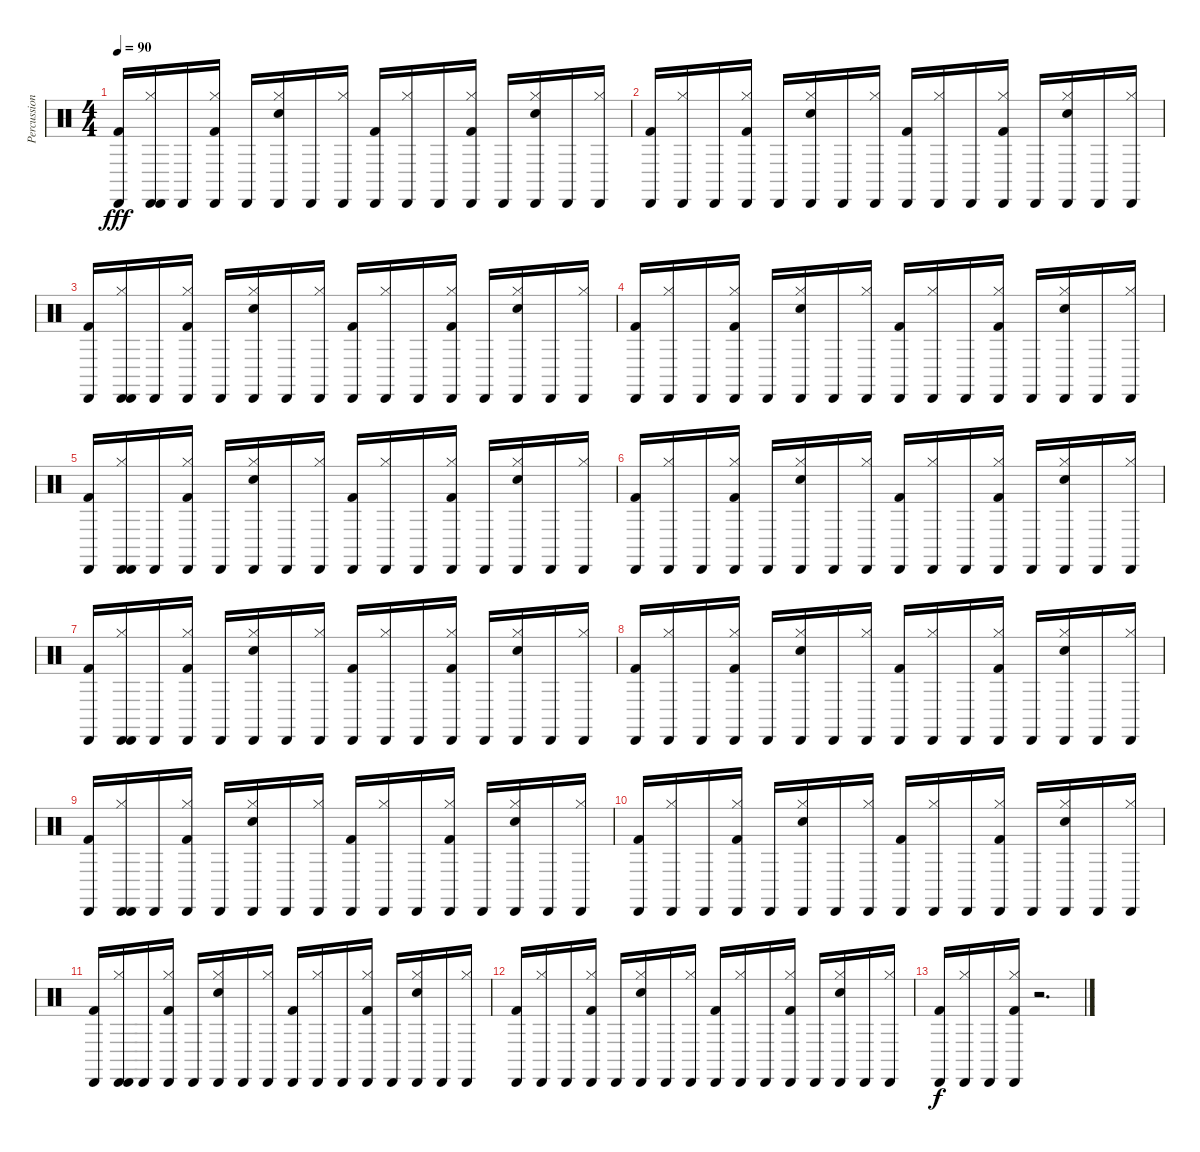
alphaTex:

\track ("Percussion" "Percussion") {instrument percussion}
\staff {score}
\articulation defaults
\ts (4 4)
\tempo 90
\clef neutral
\ks c
("Cabasa (hit)" "Kick (hit) 2").16{dy fff} ("Cabasa (hit)" "Cabasa (hit)" "Hi-Hat (closed)").16 "Cabasa (hit)".16 ("Cabasa (hit)" "Hi-Hat (closed)" "Kick (hit) 2").16 "Cabasa (hit)".16 ("Cabasa (hit)" "Hi-Hat (closed)" "Snare (hit) 2").16 "Cabasa (hit)".16 ("Cabasa (hit)" "Hi-Hat (closed)").16 ("Cabasa (hit)" "Kick (hit) 2").16 ("Cabasa (hit)" "Hi-Hat (closed)").16 "Cabasa (hit)".16 ("Cabasa (hit)" "Hi-Hat (closed)" "Kick (hit) 2").16 "Cabasa (hit)".16 ("Cabasa (hit)" "Hi-Hat (closed)" "Snare (hit) 2").16 "Cabasa (hit)".16 ("Cabasa (hit)" "Hi-Hat (closed)").16 |
("Cabasa (hit)" "Kick (hit) 2").16 ("Cabasa (hit)" "Hi-Hat (closed)").16 "Cabasa (hit)".16 ("Cabasa (hit)" "Hi-Hat (closed)" "Kick (hit) 2").16 "Cabasa (hit)".16 ("Cabasa (hit)" "Hi-Hat (closed)" "Snare (hit) 2").16 "Cabasa (hit)".16 ("Cabasa (hit)" "Hi-Hat (closed)").16 ("Cabasa (hit)" "Kick (hit) 2").16 ("Cabasa (hit)" "Hi-Hat (closed)").16 "Cabasa (hit)".16 ("Cabasa (hit)" "Hi-Hat (closed)" "Kick (hit) 2").16 "Cabasa (hit)".16 ("Cabasa (hit)" "Hi-Hat (closed)" "Snare (hit) 2").16 "Cabasa (hit)".16 ("Cabasa (hit)" "Hi-Hat (closed)").16 |
("Cabasa (hit)" "Kick (hit) 2").16 ("Cabasa (hit)" "Cabasa (hit)" "Hi-Hat (closed)").16 "Cabasa (hit)".16 ("Cabasa (hit)" "Hi-Hat (closed)" "Kick (hit) 2").16 "Cabasa (hit)".16 ("Cabasa (hit)" "Hi-Hat (closed)" "Snare (hit) 2").16 "Cabasa (hit)".16 ("Cabasa (hit)" "Hi-Hat (closed)").16 ("Cabasa (hit)" "Kick (hit) 2").16 ("Cabasa (hit)" "Hi-Hat (closed)").16 "Cabasa (hit)".16 ("Cabasa (hit)" "Hi-Hat (closed)" "Kick (hit) 2").16 "Cabasa (hit)".16 ("Cabasa (hit)" "Hi-Hat (closed)" "Snare (hit) 2").16 "Cabasa (hit)".16 ("Cabasa (hit)" "Hi-Hat (closed)").16 |
("Cabasa (hit)" "Kick (hit) 2").16 ("Cabasa (hit)" "Hi-Hat (closed)").16 "Cabasa (hit)".16 ("Cabasa (hit)" "Hi-Hat (closed)" "Kick (hit) 2").16 "Cabasa (hit)".16 ("Cabasa (hit)" "Hi-Hat (closed)" "Snare (hit) 2").16 "Cabasa (hit)".16 ("Cabasa (hit)" "Hi-Hat (closed)").16 ("Cabasa (hit)" "Kick (hit) 2").16 ("Cabasa (hit)" "Hi-Hat (closed)").16 "Cabasa (hit)".16 ("Cabasa (hit)" "Hi-Hat (closed)" "Kick (hit) 2").16 "Cabasa (hit)".16 ("Cabasa (hit)" "Hi-Hat (closed)" "Snare (hit) 2").16 "Cabasa (hit)".16 ("Cabasa (hit)" "Hi-Hat (closed)").16 |
("Cabasa (hit)" "Kick (hit) 2").16 ("Cabasa (hit)" "Cabasa (hit)" "Hi-Hat (closed)").16 "Cabasa (hit)".16 ("Cabasa (hit)" "Hi-Hat (closed)" "Kick (hit) 2").16 "Cabasa (hit)".16 ("Cabasa (hit)" "Hi-Hat (closed)" "Snare (hit) 2").16 "Cabasa (hit)".16 ("Cabasa (hit)" "Hi-Hat (closed)").16 ("Cabasa (hit)" "Kick (hit) 2").16 ("Cabasa (hit)" "Hi-Hat (closed)").16 "Cabasa (hit)".16 ("Cabasa (hit)" "Hi-Hat (closed)" "Kick (hit) 2").16 "Cabasa (hit)".16 ("Cabasa (hit)" "Hi-Hat (closed)" "Snare (hit) 2").16 "Cabasa (hit)".16 ("Cabasa (hit)" "Hi-Hat (closed)").16 |
("Cabasa (hit)" "Kick (hit) 2").16 ("Cabasa (hit)" "Hi-Hat (closed)").16 "Cabasa (hit)".16 ("Cabasa (hit)" "Hi-Hat (closed)" "Kick (hit) 2").16 "Cabasa (hit)".16 ("Cabasa (hit)" "Hi-Hat (closed)" "Snare (hit) 2").16 "Cabasa (hit)".16 ("Cabasa (hit)" "Hi-Hat (closed)").16 ("Cabasa (hit)" "Kick (hit) 2").16 ("Cabasa (hit)" "Hi-Hat (closed)").16 "Cabasa (hit)".16 ("Cabasa (hit)" "Hi-Hat (closed)" "Kick (hit) 2").16 "Cabasa (hit)".16 ("Cabasa (hit)" "Hi-Hat (closed)" "Snare (hit) 2").16 "Cabasa (hit)".16 ("Cabasa (hit)" "Hi-Hat (closed)").16 |
("Cabasa (hit)" "Kick (hit) 2").16 ("Cabasa (hit)" "Cabasa (hit)" "Hi-Hat (closed)").16 "Cabasa (hit)".16 ("Cabasa (hit)" "Hi-Hat (closed)" "Kick (hit) 2").16 "Cabasa (hit)".16 ("Cabasa (hit)" "Hi-Hat (closed)" "Snare (hit) 2").16 "Cabasa (hit)".16 ("Cabasa (hit)" "Hi-Hat (closed)").16 ("Cabasa (hit)" "Kick (hit) 2").16 ("Cabasa (hit)" "Hi-Hat (closed)").16 "Cabasa (hit)".16 ("Cabasa (hit)" "Hi-Hat (closed)" "Kick (hit) 2").16 "Cabasa (hit)".16 ("Cabasa (hit)" "Hi-Hat (closed)" "Snare (hit) 2").16 "Cabasa (hit)".16 ("Cabasa (hit)" "Hi-Hat (closed)").16 |
("Cabasa (hit)" "Kick (hit) 2").16 ("Cabasa (hit)" "Hi-Hat (closed)").16 "Cabasa (hit)".16 ("Cabasa (hit)" "Hi-Hat (closed)" "Kick (hit) 2").16 "Cabasa (hit)".16 ("Cabasa (hit)" "Hi-Hat (closed)" "Snare (hit) 2").16 "Cabasa (hit)".16 ("Cabasa (hit)" "Hi-Hat (closed)").16 ("Cabasa (hit)" "Kick (hit) 2").16 ("Cabasa (hit)" "Hi-Hat (closed)").16 "Cabasa (hit)".16 ("Cabasa (hit)" "Hi-Hat (closed)" "Kick (hit) 2").16 "Cabasa (hit)".16 ("Cabasa (hit)" "Hi-Hat (closed)" "Snare (hit) 2").16 "Cabasa (hit)".16 ("Cabasa (hit)" "Hi-Hat (closed)").16 |
("Cabasa (hit)" "Kick (hit) 2").16 ("Cabasa (hit)" "Cabasa (hit)" "Hi-Hat (closed)").16 "Cabasa (hit)".16 ("Cabasa (hit)" "Hi-Hat (closed)" "Kick (hit) 2").16 "Cabasa (hit)".16 ("Cabasa (hit)" "Hi-Hat (closed)" "Snare (hit) 2").16 "Cabasa (hit)".16 ("Cabasa (hit)" "Hi-Hat (closed)").16 ("Cabasa (hit)" "Kick (hit) 2").16 ("Cabasa (hit)" "Hi-Hat (closed)").16 "Cabasa (hit)".16 ("Cabasa (hit)" "Hi-Hat (closed)" "Kick (hit) 2").16 "Cabasa (hit)".16 ("Cabasa (hit)" "Hi-Hat (closed)" "Snare (hit) 2").16 "Cabasa (hit)".16 ("Cabasa (hit)" "Hi-Hat (closed)").16 |
("Cabasa (hit)" "Kick (hit) 2").16 ("Cabasa (hit)" "Hi-Hat (closed)").16 "Cabasa (hit)".16 ("Cabasa (hit)" "Hi-Hat (closed)" "Kick (hit) 2").16 "Cabasa (hit)".16 ("Cabasa (hit)" "Hi-Hat (closed)" "Snare (hit) 2").16 "Cabasa (hit)".16 ("Cabasa (hit)" "Hi-Hat (closed)").16 ("Cabasa (hit)" "Kick (hit) 2").16 ("Cabasa (hit)" "Hi-Hat (closed)").16 "Cabasa (hit)".16 ("Cabasa (hit)" "Hi-Hat (closed)" "Kick (hit) 2").16 "Cabasa (hit)".16 ("Cabasa (hit)" "Hi-Hat (closed)" "Snare (hit) 2").16 "Cabasa (hit)".16 ("Cabasa (hit)" "Hi-Hat (closed)").16 |
("Cabasa (hit)" "Kick (hit) 2").16 ("Cabasa (hit)" "Cabasa (hit)" "Hi-Hat (closed)").16 "Cabasa (hit)".16 ("Cabasa (hit)" "Hi-Hat (closed)" "Kick (hit) 2").16 "Cabasa (hit)".16 ("Cabasa (hit)" "Hi-Hat (closed)" "Snare (hit) 2").16 "Cabasa (hit)".16 ("Cabasa (hit)" "Hi-Hat (closed)").16 ("Cabasa (hit)" "Kick (hit) 2").16 ("Cabasa (hit)" "Hi-Hat (closed)").16 "Cabasa (hit)".16 ("Cabasa (hit)" "Hi-Hat (closed)" "Kick (hit) 2").16 "Cabasa (hit)".16 ("Cabasa (hit)" "Hi-Hat (closed)" "Snare (hit) 2").16 "Cabasa (hit)".16 ("Cabasa (hit)" "Hi-Hat (closed)").16 |
("Cabasa (hit)" "Kick (hit) 2").16 ("Cabasa (hit)" "Hi-Hat (closed)").16 "Cabasa (hit)".16 ("Cabasa (hit)" "Hi-Hat (closed)" "Kick (hit) 2").16 "Cabasa (hit)".16 ("Cabasa (hit)" "Hi-Hat (closed)" "Snare (hit) 2").16 "Cabasa (hit)".16 ("Cabasa (hit)" "Hi-Hat (closed)").16 ("Cabasa (hit)" "Kick (hit) 2").16 ("Cabasa (hit)" "Hi-Hat (closed)").16 "Cabasa (hit)".16 ("Cabasa (hit)" "Hi-Hat (closed)" "Kick (hit) 2").16 "Cabasa (hit)".16 ("Cabasa (hit)" "Hi-Hat (closed)" "Snare (hit) 2").16 "Cabasa (hit)".16 ("Cabasa (hit)" "Hi-Hat (closed)").16 |
("Cabasa (hit)" "Kick (hit) 2").16{dy f} ("Cabasa (hit)" "Hi-Hat (closed)").16 "Cabasa (hit)".16 ("Cabasa (hit)" "Hi-Hat (closed)" "Kick (hit) 2").16 r.2{d}
